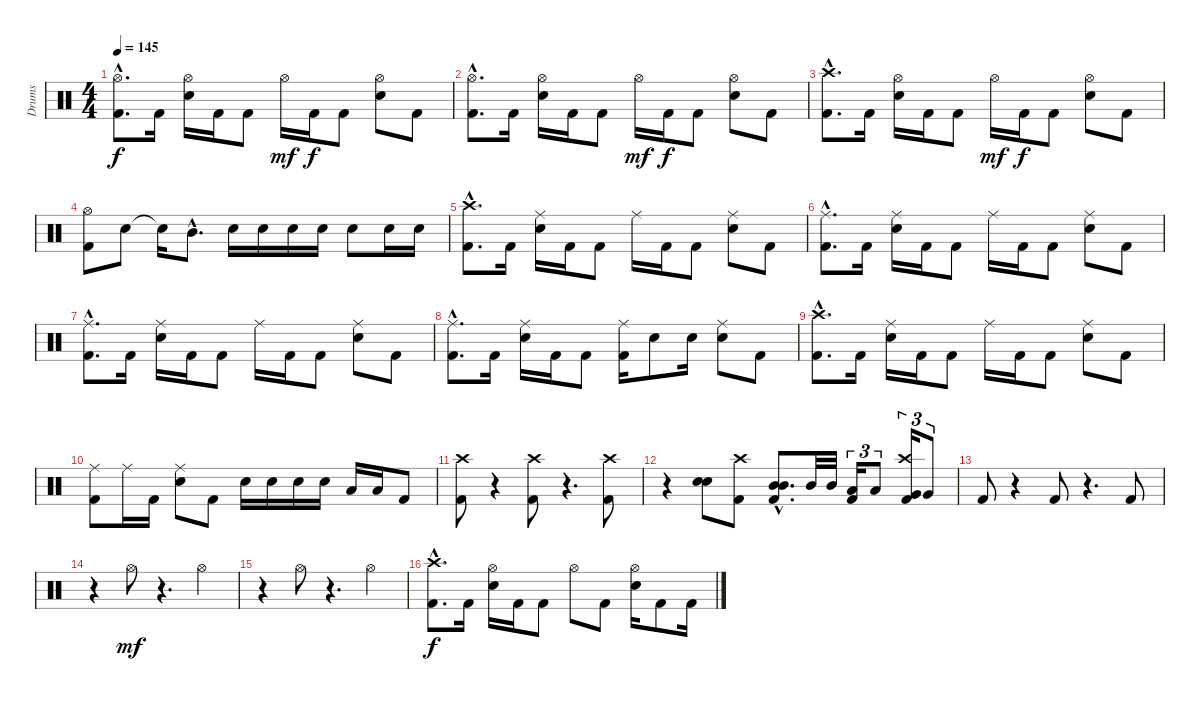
\track ("Drums" "Drums") {instrument percussion}
\staff {score}
\articulation defaults
\ts (4 4)
\tempo 145
\clef neutral
\ks c
("Hi-Hat (open)"{hac} "Kick (hit) 2"{hac}).8{d dy f} "Kick (hit) 2".16 ("Hi-Hat (open)" "Electric Snare (hit)").16 "Kick (hit) 2".16 "Kick (hit) 2".8 "Hi-Hat (open)".16{dy mf} "Kick (hit) 2".16{dy f} "Kick (hit) 2".8 ("Hi-Hat (open)" "Electric Snare (hit)").8 "Kick (hit) 2".8 |
("Hi-Hat (open)"{hac} "Kick (hit) 2"{hac}).8{d} "Kick (hit) 2".16 ("Hi-Hat (open)" "Electric Snare (hit)").16 "Kick (hit) 2".16 "Kick (hit) 2".8 "Hi-Hat (open)".16{dy mf} "Kick (hit) 2".16{dy f} "Kick (hit) 2".8 ("Hi-Hat (open)" "Electric Snare (hit)").8 "Kick (hit) 2".8 |
("Crash high (hit)"{hac} "Kick (hit) 2"{hac}).8{d} "Kick (hit) 2".16 ("Hi-Hat (open)" "Electric Snare (hit)").16 "Kick (hit) 2".16 "Kick (hit) 2".8 "Hi-Hat (open)".16{dy mf} "Kick (hit) 2".16{dy f} "Kick (hit) 2".8 ("Hi-Hat (open)" "Electric Snare (hit)").8 "Kick (hit) 2".8 |
("Hi-Hat (open)" "Kick (hit) 2").8 "Electric Snare (hit)".8 "Snare (hit)"{t}.16 "Mid Tom (hit)"{hac}.8{d} "Electric Snare (hit)".16 "Electric Snare (hit)".16 "Electric Snare (hit)".16 "Electric Snare (hit)".16 "Electric Snare (hit)".8 "Electric Snare (hit)".16 "Electric Snare (hit)".16 |
("Crash high (hit)"{hac} "Kick (hit) 2"{hac}).8{d} "Kick (hit) 2".16 ("Ride (middle)" "Electric Snare (hit)").16 "Kick (hit) 2".16 "Kick (hit) 2".8 "Ride (middle)".16 "Kick (hit) 2".16 "Kick (hit) 2".8 ("Ride (middle)" "Electric Snare (hit)").8 "Kick (hit) 2".8 |
("Ride (middle)"{hac} "Kick (hit) 2"{hac}).8{d} "Kick (hit) 2".16 ("Ride (middle)" "Electric Snare (hit)").16 "Kick (hit) 2".16 "Kick (hit) 2".8 "Ride (middle)".16 "Kick (hit) 2".16 "Kick (hit) 2".8 ("Ride (middle)" "Electric Snare (hit)").8 "Kick (hit) 2".8 |
("Ride (middle)"{hac} "Kick (hit) 2"{hac}).8{d} "Kick (hit) 2".16 ("Ride (middle)" "Electric Snare (hit)").16 "Kick (hit) 2".16 "Kick (hit) 2".8 "Ride (middle)".16 "Kick (hit) 2".16 "Kick (hit) 2".8 ("Ride (middle)" "Electric Snare (hit)").8 "Kick (hit) 2".8 |
("Ride (middle)"{hac} "Kick (hit) 2"{hac}).8{d} "Kick (hit) 2".16 ("Ride (middle)" "Electric Snare (hit)").16 "Kick (hit) 2".16 "Kick (hit) 2".8 ("Ride (middle)" "Kick (hit) 2").16 "Electric Snare (hit)".8 "Electric Snare (hit)".16 ("Ride (middle)" "Electric Snare (hit)").8 "Kick (hit) 2".8 |
("Crash high (hit)"{hac} "Kick (hit) 2"{hac}).8{d} "Kick (hit) 2".16 ("Ride (middle)" "Electric Snare (hit)").16 "Kick (hit) 2".16 "Kick (hit) 2".8 "Ride (middle)".16 "Kick (hit) 2".16 "Kick (hit) 2".8 ("Ride (middle)" "Electric Snare (hit)").8 "Kick (hit) 2".8 |
("Ride (middle)" "Kick (hit) 2").8 "Ride (middle)".16 "Kick (hit) 2".16 ("Ride (middle)" "Electric Snare (hit)").8 "Kick (hit) 2".8 "Electric Snare (hit)".16 "Electric Snare (hit)".16 "Electric Snare (hit)".16 "Electric Snare (hit)".16 "Low Tom (hit)".16 "Low Tom (hit)".16 "Kick (hit) 2".8 |
("Crash high (hit)" "Kick (hit) 2").8 r.4 ("Crash high (hit)" "Kick (hit) 2").8 r.4{d} ("Crash high (hit)" "Kick (hit) 2").8 |
r.4 ("Electric Snare (hit)" "Electric Snare (hit)").8 ("Crash high (hit)" "Kick (hit) 2").8 ("Mid Tom (hit)"{hac} "Kick (hit) 2"{hac} "Mid Tom (hit)"{hac}).8{d} "Mid Tom (hit)".32 "Mid Tom (hit)".32 ("Low Tom (hit)" "Kick (hit) 2").16{tu (3 2)} "Low Tom (hit)".8{tu (3 2)} ("Crash high (hit)" "Very Low Tom (hit)" "Kick (hit) 2").16{tu (3 2)} "Very Low Tom (hit)".8{tu (3 2)} |
"Kick (hit) 2".8 r.4 "Kick (hit) 2".8 r.4{d} "Kick (hit) 2".8 |
r.4 "Hi-Hat (open)".8{dy mf} r.4{d} "Hi-Hat (open)".4 |
r.4 "Hi-Hat (open)".8 r.4{d} "Hi-Hat (open)".4 |
("Crash high (hit)"{hac} "Kick (hit) 2"{hac}).8{d dy f} "Kick (hit) 2".16 ("Hi-Hat (open)" "Electric Snare (hit)").16 "Kick (hit) 2".16 "Kick (hit) 2".8 "Hi-Hat (open)".8 "Kick (hit) 2".8 ("Hi-Hat (open)" "Electric Snare (hit)").16 "Kick (hit) 2".8 "Kick (hit) 2".16
